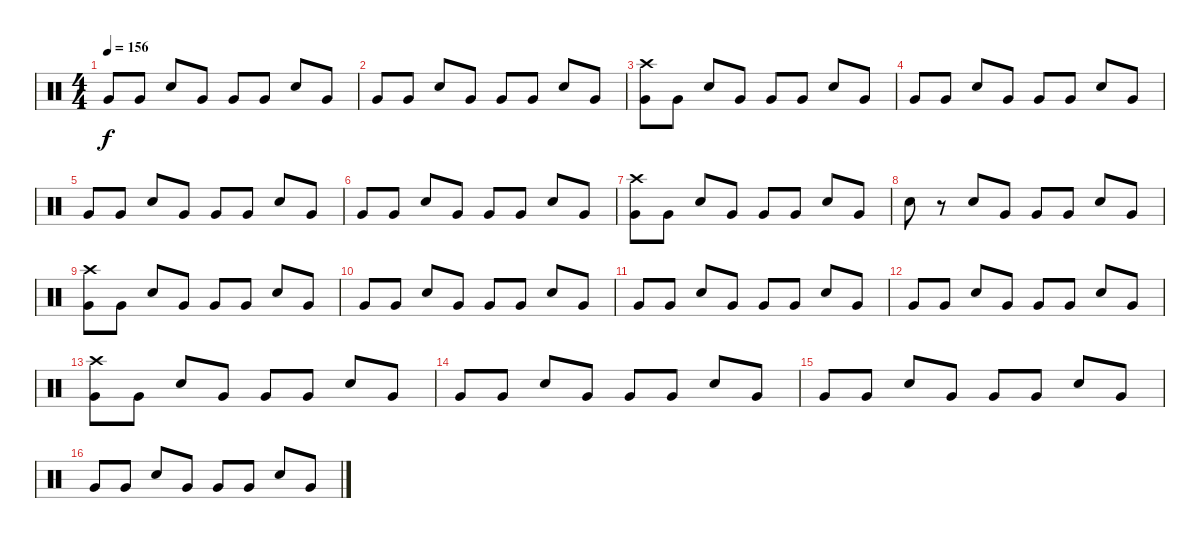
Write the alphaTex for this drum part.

\track "" {instrument percussion}
\staff {score}
\articulation defaults
\ts (4 4)
\tempo 156
\clef neutral
\ks c "Very Low Tom (hit)".8{dy f} "Very Low Tom (hit)".8 "Electric Snare (hit)".8 "Very Low Tom (hit)".8 "Very Low Tom (hit)".8 "Very Low Tom (hit)".8 "Electric Snare (hit)".8 "Very Low Tom (hit)".8
|
"Very Low Tom (hit)".8 "Very Low Tom (hit)".8 "Electric Snare (hit)".8 "Very Low Tom (hit)".8 "Very Low Tom (hit)".8 "Very Low Tom (hit)".8 "Electric Snare (hit)".8 "Very Low Tom (hit)".8 |
("Very Low Tom (hit)" "Crash high (hit)").8{volume 14} "Very Low Tom (hit)".8 "Electric Snare (hit)".8 "Very Low Tom (hit)".8 "Very Low Tom (hit)".8 "Very Low Tom (hit)".8 "Electric Snare (hit)".8 "Very Low Tom (hit)".8 |
"Very Low Tom (hit)".8 "Very Low Tom (hit)".8 "Electric Snare (hit)".8 "Very Low Tom (hit)".8 "Very Low Tom (hit)".8 "Very Low Tom (hit)".8 "Electric Snare (hit)".8 "Very Low Tom (hit)".8 |
"Very Low Tom (hit)".8 "Very Low Tom (hit)".8 "Electric Snare (hit)".8 "Very Low Tom (hit)".8 "Very Low Tom (hit)".8 "Very Low Tom (hit)".8 "Electric Snare (hit)".8 "Very Low Tom (hit)".8 |
"Very Low Tom (hit)".8 "Very Low Tom (hit)".8 "Electric Snare (hit)".8 "Very Low Tom (hit)".8 "Very Low Tom (hit)".8 "Very Low Tom (hit)".8 "Electric Snare (hit)".8 "Very Low Tom (hit)".8 |
("Very Low Tom (hit)" "Crash high (hit)").8{volume 14} "Very Low Tom (hit)".8 "Electric Snare (hit)".8 "Very Low Tom (hit)".8 "Very Low Tom (hit)".8 "Very Low Tom (hit)".8 "Electric Snare (hit)".8 "Very Low Tom (hit)".8 |
"Electric Snare (hit)".8 r.8 "Electric Snare (hit)".8 "Very Low Tom (hit)".8 "Very Low Tom (hit)".8 "Very Low Tom (hit)".8 "Electric Snare (hit)".8 "Very Low Tom (hit)".8 |
("Very Low Tom (hit)" "Crash high (hit)").8{volume 14} "Very Low Tom (hit)".8 "Electric Snare (hit)".8 "Very Low Tom (hit)".8 "Very Low Tom (hit)".8 "Very Low Tom (hit)".8 "Electric Snare (hit)".8 "Very Low Tom (hit)".8 |
"Very Low Tom (hit)".8 "Very Low Tom (hit)".8 "Electric Snare (hit)".8 "Very Low Tom (hit)".8 "Very Low Tom (hit)".8 "Very Low Tom (hit)".8 "Electric Snare (hit)".8 "Very Low Tom (hit)".8 |
"Very Low Tom (hit)".8 "Very Low Tom (hit)".8 "Electric Snare (hit)".8 "Very Low Tom (hit)".8 "Very Low Tom (hit)".8 "Very Low Tom (hit)".8 "Electric Snare (hit)".8 "Very Low Tom (hit)".8 |
"Very Low Tom (hit)".8 "Very Low Tom (hit)".8 "Electric Snare (hit)".8 "Very Low Tom (hit)".8 "Very Low Tom (hit)".8 "Very Low Tom (hit)".8 "Electric Snare (hit)".8 "Very Low Tom (hit)".8 |
("Very Low Tom (hit)" "Crash high (hit)").8{volume 14} "Very Low Tom (hit)".8 "Electric Snare (hit)".8 "Very Low Tom (hit)".8 "Very Low Tom (hit)".8 "Very Low Tom (hit)".8 "Electric Snare (hit)".8 "Very Low Tom (hit)".8 |
"Very Low Tom (hit)".8 "Very Low Tom (hit)".8 "Electric Snare (hit)".8 "Very Low Tom (hit)".8 "Very Low Tom (hit)".8 "Very Low Tom (hit)".8 "Electric Snare (hit)".8 "Very Low Tom (hit)".8 |
"Very Low Tom (hit)".8 "Very Low Tom (hit)".8 "Electric Snare (hit)".8 "Very Low Tom (hit)".8 "Very Low Tom (hit)".8 "Very Low Tom (hit)".8 "Electric Snare (hit)".8 "Very Low Tom (hit)".8 |
"Very Low Tom (hit)".8 "Very Low Tom (hit)".8 "Electric Snare (hit)".8 "Very Low Tom (hit)".8 "Very Low Tom (hit)".8 "Very Low Tom (hit)".8 "Electric Snare (hit)".8 "Very Low Tom (hit)".8
